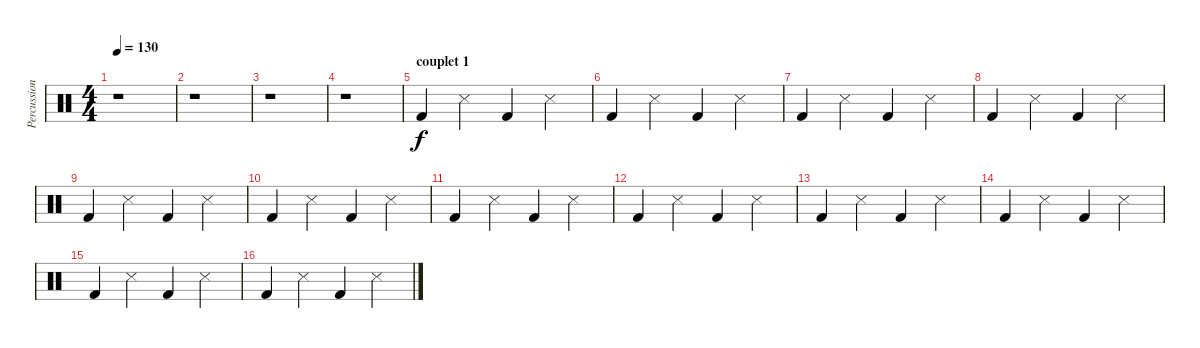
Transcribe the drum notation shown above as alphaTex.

\track ("Percussions" "Percussion") {instrument percussion}
\staff {score}
\articulation defaults
\ts (4 4)
\tempo 130
\clef neutral
\ks c
r.1{dy f} |
r.1 |
r.1 |
r.1 |
\section ("" "couplet 1")
"Kick (hit) 2".4 "Snare (side stick) 3".4 "Kick (hit) 2".4 "Snare (side stick) 3".4 |
"Kick (hit) 2".4 "Snare (side stick) 3".4 "Kick (hit) 2".4 "Snare (side stick) 3".4 |
"Kick (hit) 2".4 "Snare (side stick) 3".4 "Kick (hit) 2".4 "Snare (side stick) 3".4 |
"Kick (hit) 2".4 "Snare (side stick) 3".4 "Kick (hit) 2".4 "Snare (side stick) 3".4 |
"Kick (hit) 2".4 "Snare (side stick) 3".4 "Kick (hit) 2".4 "Snare (side stick) 3".4 |
"Kick (hit) 2".4 "Snare (side stick) 3".4 "Kick (hit) 2".4 "Snare (side stick) 3".4 |
"Kick (hit) 2".4 "Snare (side stick) 3".4 "Kick (hit) 2".4 "Snare (side stick) 3".4 |
"Kick (hit) 2".4 "Snare (side stick) 3".4 "Kick (hit) 2".4 "Snare (side stick) 3".4 |
"Kick (hit) 2".4 "Snare (side stick) 3".4 "Kick (hit) 2".4 "Snare (side stick) 3".4 |
"Kick (hit) 2".4 "Snare (side stick) 3".4 "Kick (hit) 2".4 "Snare (side stick) 3".4 |
"Kick (hit) 2".4 "Snare (side stick) 3".4 "Kick (hit) 2".4 "Snare (side stick) 3".4 |
"Kick (hit) 2".4 "Snare (side stick) 3".4 "Kick (hit) 2".4 "Snare (side stick) 3".4
